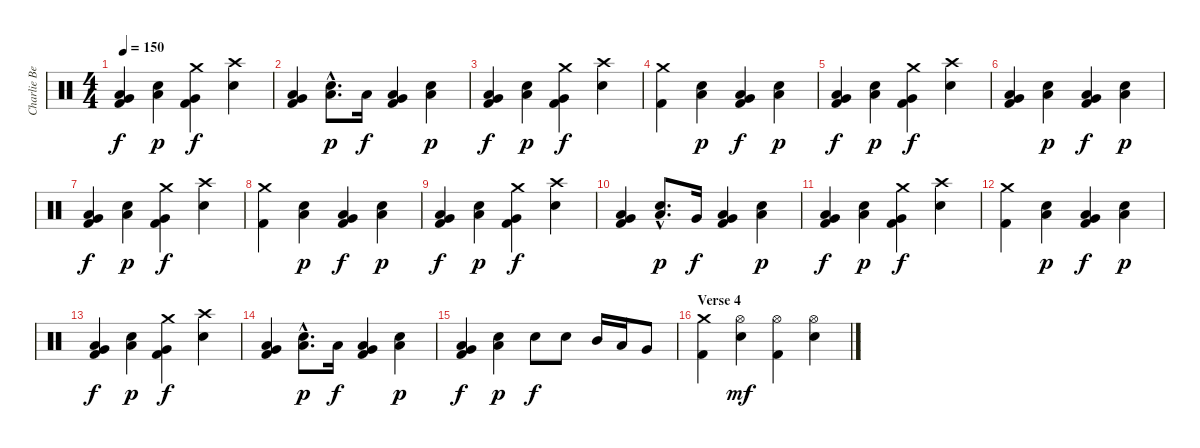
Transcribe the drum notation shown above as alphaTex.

\track ("Charlie Benante" "Charlie Be") {instrument percussion}
\staff {score}
\articulation defaults
\ts (4 4)
\tempo 150
\clef neutral
\ks c
("Kick (hit) 2" "Low Tom (hit)" "Very Low Tom (hit)").4{dy f} ("Snare (hit) 2" "Low Tom (hit)").4{dy p} ("Kick (hit) 2" "Crash medium (hit)" "Very Low Tom (hit)").4{dy f} ("Crash high (hit)" "Snare (hit) 2").4 |
("Kick (hit) 2" "Low Tom (hit)" "Very Low Tom (hit)").4 ("Snare (hit) 2"{hac} "Low Tom (hit)"{hac}).8{d dy p} "Low Tom (hit)".16{dy f} ("Kick (hit) 2" "Low Tom (hit)" "Very Low Tom (hit)").4 ("Snare (hit) 2" "Low Tom (hit)").4{dy p} |
("Kick (hit) 2" "Low Tom (hit)" "Very Low Tom (hit)").4{dy f} ("Snare (hit) 2" "Low Tom (hit)").4{dy p} ("Kick (hit) 2" "Crash medium (hit)" "Very Low Tom (hit)").4{dy f} ("Crash high (hit)" "Snare (hit) 2").4 |
("Kick (hit) 2" "Crash medium (hit)").4 ("Snare (hit) 2" "Low Tom (hit)").4{dy p} ("Kick (hit) 2" "Low Tom (hit)" "Very Low Tom (hit)").4{dy f} ("Snare (hit) 2" "Low Tom (hit)").4{dy p} |
("Kick (hit) 2" "Low Tom (hit)" "Very Low Tom (hit)").4{dy f} ("Snare (hit) 2" "Low Tom (hit)").4{dy p} ("Kick (hit) 2" "Crash medium (hit)" "Very Low Tom (hit)").4{dy f} ("Crash high (hit)" "Snare (hit) 2").4 |
("Kick (hit) 2" "Low Tom (hit)" "Very Low Tom (hit)").4 ("Snare (hit) 2" "Low Tom (hit)").4{dy p} ("Kick (hit) 2" "Low Tom (hit)" "Very Low Tom (hit)").4{dy f} ("Snare (hit) 2" "Low Tom (hit)").4{dy p} |
("Kick (hit) 2" "Low Tom (hit)" "Very Low Tom (hit)").4{dy f} ("Snare (hit) 2" "Low Tom (hit)").4{dy p} ("Kick (hit) 2" "Crash medium (hit)" "Very Low Tom (hit)").4{dy f} ("Crash high (hit)" "Snare (hit) 2").4 |
("Kick (hit) 2" "Crash medium (hit)").4 ("Snare (hit) 2" "Low Tom (hit)").4{dy p} ("Kick (hit) 2" "Low Tom (hit)" "Very Low Tom (hit)").4{dy f} ("Snare (hit) 2" "Low Tom (hit)").4{dy p} |
("Kick (hit) 2" "Low Tom (hit)" "Very Low Tom (hit)").4{dy f} ("Snare (hit) 2" "Low Tom (hit)").4{dy p} ("Kick (hit) 2" "Crash medium (hit)" "Very Low Tom (hit)").4{dy f} ("Crash high (hit)" "Snare (hit) 2").4 |
("Kick (hit) 2" "Low Tom (hit)" "Very Low Tom (hit)").4 ("Snare (hit) 2"{hac} "Low Tom (hit)"{hac}).8{d dy p} "Very Low Tom (hit)".16{dy f} ("Kick (hit) 2" "Low Tom (hit)" "Very Low Tom (hit)").4 ("Snare (hit) 2" "Low Tom (hit)").4{dy p} |
("Kick (hit) 2" "Low Tom (hit)" "Very Low Tom (hit)").4{dy f} ("Snare (hit) 2" "Low Tom (hit)").4{dy p} ("Kick (hit) 2" "Crash medium (hit)" "Very Low Tom (hit)").4{dy f} ("Crash high (hit)" "Snare (hit) 2").4 |
("Kick (hit) 2" "Crash medium (hit)").4 ("Snare (hit) 2" "Low Tom (hit)").4{dy p} ("Kick (hit) 2" "Low Tom (hit)" "Very Low Tom (hit)").4{dy f} ("Snare (hit) 2" "Low Tom (hit)").4{dy p} |
("Kick (hit) 2" "Low Tom (hit)" "Very Low Tom (hit)").4{dy f} ("Snare (hit) 2" "Low Tom (hit)").4{dy p} ("Kick (hit) 2" "Crash medium (hit)" "Very Low Tom (hit)").4{dy f} ("Crash high (hit)" "Snare (hit) 2").4 |
("Kick (hit) 2" "Low Tom (hit)" "Very Low Tom (hit)").4 ("Snare (hit) 2"{hac} "Low Tom (hit)"{hac}).8{d dy p} "Low Tom (hit)".16{dy f} ("Kick (hit) 2" "Low Tom (hit)" "Very Low Tom (hit)").4 ("Snare (hit) 2" "Low Tom (hit)").4{dy p} |
("Kick (hit) 2" "Low Tom (hit)" "Very Low Tom (hit)").4{dy f} ("Snare (hit) 2" "Low Tom (hit)").4{dy p} "Snare (hit) 2".8{dy f} "Snare (hit) 2".8 "Mid Tom (hit)".16 "Low Tom (hit)".16 "Very Low Tom (hit)".8 |
\section ("" "Verse 4")
("Kick (hit) 2" "Crash medium (hit)").4 ("Hi-Hat (open)" "Snare (hit) 2").4{dy mf} ("Kick (hit) 2" "Hi-Hat (open)").4 ("Hi-Hat (open)" "Snare (hit) 2").4
